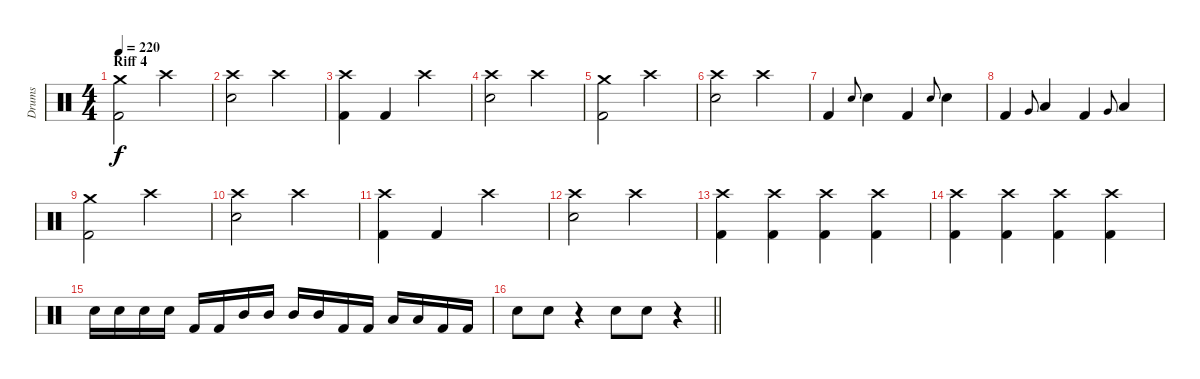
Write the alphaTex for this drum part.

\track ("Drums" "Drums") {instrument percussion}
\staff {score}
\articulation defaults
\ts (4 4)
\section ("" "Riff 4")
\tempo 220
\clef neutral
\ks c
("Kick (hit) 2" "Crash medium (hit)").2{dy f} "Crash high (hit)".2 |
("Electric Snare (hit)" "Crash high (hit)").2 "Crash high (hit)".2 |
("Kick (hit) 2" "Crash high (hit)").4 "Kick (hit) 2".4 "Crash high (hit)".2 |
("Electric Snare (hit)" "Crash high (hit)").2 "Crash high (hit)".2 |
("Kick (hit) 2" "Crash medium (hit)").2 "Crash high (hit)".2 |
("Electric Snare (hit)" "Crash high (hit)").2 "Crash high (hit)".2 |
"Kick (hit) 2".4 "Electric Snare (hit)".8{gr onbeat} "Electric Snare (hit)".4 "Kick (hit) 2".4 "Electric Snare (hit)".8{gr onbeat} "Electric Snare (hit)".4 |
"Kick (hit) 2".4 "Very Low Tom (hit)".8{gr onbeat} "Low Tom (hit)".4 "Kick (hit) 2".4 "Very Low Tom (hit)".8{gr onbeat} "Low Tom (hit)".4 |
("Kick (hit) 2" "Crash medium (hit)").2 "Crash high (hit)".2 |
("Electric Snare (hit)" "Crash high (hit)").2 "Crash high (hit)".2 |
("Kick (hit) 2" "Crash high (hit)").4 "Kick (hit) 2".4 "Crash high (hit)".2 |
("Electric Snare (hit)" "Crash high (hit)").2 "Crash high (hit)".2 |
("Crash high (hit)" "Kick (hit) 2").4 ("Crash high (hit)" "Kick (hit) 2").4 ("Crash high (hit)" "Kick (hit) 2").4 ("Crash high (hit)" "Kick (hit) 2").4 |
("Crash high (hit)" "Kick (hit) 2").4 ("Crash high (hit)" "Kick (hit) 2").4 ("Crash high (hit)" "Kick (hit) 2").4 ("Crash high (hit)" "Kick (hit) 2").4 |
"Electric Snare (hit)".16 "Electric Snare (hit)".16 "Electric Snare (hit)".16 "Electric Snare (hit)".16 "Kick (hit) 2".16 "Kick (hit) 2".16 "Mid Tom (hit)".16 "Mid Tom (hit)".16 "Mid Tom (hit)".16 "Mid Tom (hit)".16 "Kick (hit) 2".16 "Kick (hit) 2".16 "Low Tom (hit)".16 "Low Tom (hit)".16 "Kick (hit) 2".16 "Kick (hit) 2".16 |
\barLineRight lightlight "Electric Snare (hit)".8 "Electric Snare (hit)".8
r.4 "Electric Snare (hit)".8 "Electric Snare (hit)".8 r.4
